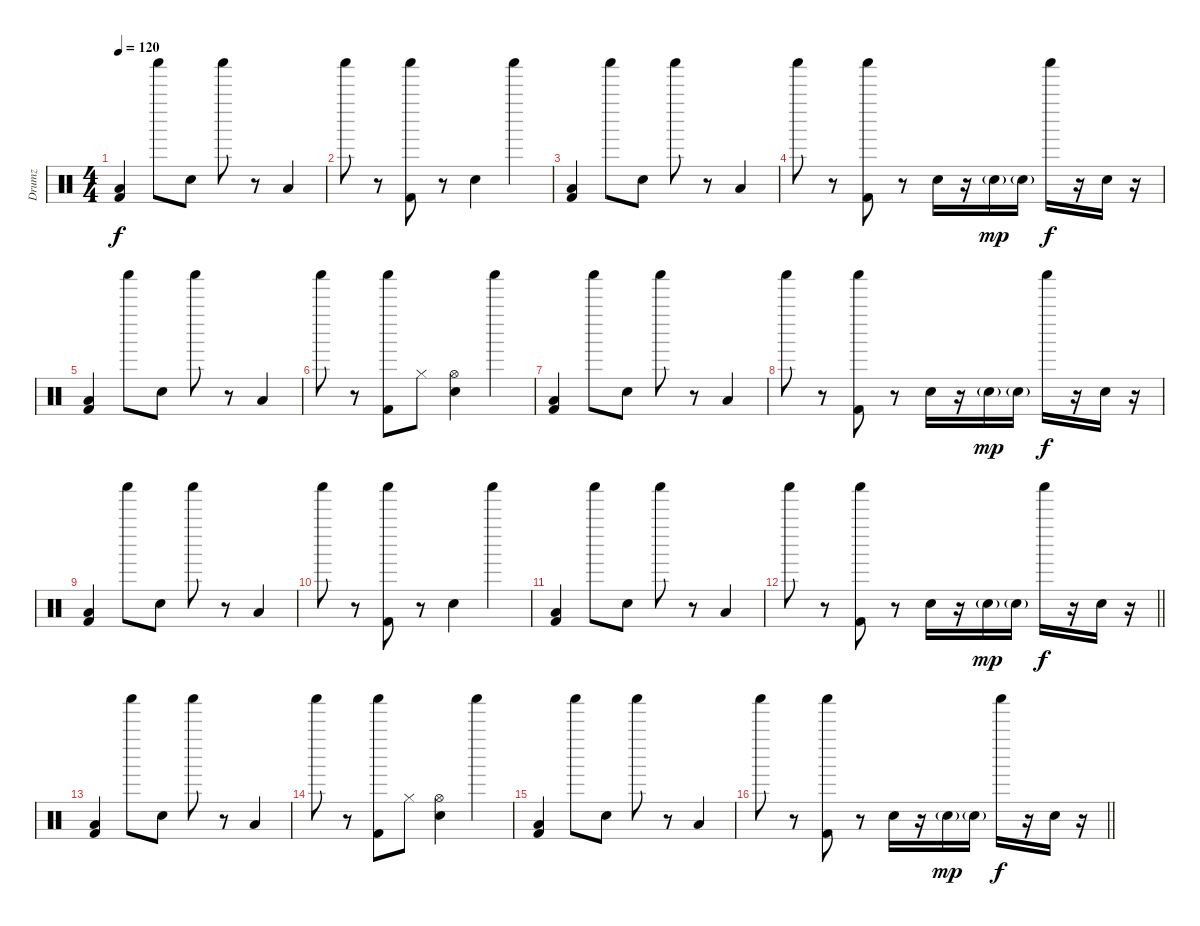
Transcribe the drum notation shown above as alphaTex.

\track ("Drumz" "Drumz") {instrument percussion}
\staff {score}
\articulation defaults
\ts (4 4)
\tempo 120
\clef neutral
\ks c
("Low Tom (hit)" "Kick (hit) 2").4{dy f} "Shaker (hit)".8 "Electric Snare (hit)".8 "Shaker (hit)".8 r.8 "Low Tom (hit)".4 |
"Shaker (hit)".8 r.8 ("Kick (hit) 2" "Shaker (hit)").8 r.8 "Electric Snare (hit)".4 "Shaker (hit)".4 |
("Low Tom (hit)" "Kick (hit) 2").4 "Shaker (hit)".8 "Electric Snare (hit)".8 "Shaker (hit)".8 r.8 "Low Tom (hit)".4 |
"Shaker (hit)".8 r.8 ("Kick (hit) 2" "Shaker (hit)").8 r.8 "Electric Snare (hit)".16 r.16 "Electric Snare (hit)"{g}.16{dy mp} "Electric Snare (hit)"{g}.16 "Shaker (hit)".16{dy f} r.16 "Electric Snare (hit)".16 r.16 |
("Low Tom (hit)" "Kick (hit) 2").4 "Shaker (hit)".8 "Electric Snare (hit)".8 "Shaker (hit)".8 r.8 "Low Tom (hit)".4 |
"Shaker (hit)".8 r.8 ("Kick (hit) 2" "Shaker (hit)").8 "Hi-Hat (closed)".8 ("Hi-Hat (open)" "Electric Snare (hit)").4 "Shaker (hit)".4 |
("Low Tom (hit)" "Kick (hit) 2").4 "Shaker (hit)".8 "Electric Snare (hit)".8 "Shaker (hit)".8 r.8 "Low Tom (hit)".4 |
"Shaker (hit)".8 r.8 ("Kick (hit) 2" "Shaker (hit)").8 r.8 "Electric Snare (hit)".16 r.16 "Electric Snare (hit)"{g}.16{dy mp} "Electric Snare (hit)"{g}.16 "Shaker (hit)".16{dy f} r.16 "Electric Snare (hit)".16 r.16 |
("Low Tom (hit)" "Kick (hit) 2").4 "Shaker (hit)".8 "Electric Snare (hit)".8 "Shaker (hit)".8 r.8 "Low Tom (hit)".4 |
"Shaker (hit)".8 r.8 ("Kick (hit) 2" "Shaker (hit)").8 r.8 "Electric Snare (hit)".4 "Shaker (hit)".4 |
("Low Tom (hit)" "Kick (hit) 2").4 "Shaker (hit)".8 "Electric Snare (hit)".8 "Shaker (hit)".8 r.8 "Low Tom (hit)".4 |
\barLineRight lightlight "Shaker (hit)".8
r.8 ("Kick (hit) 2" "Shaker (hit)").8 r.8 "Electric Snare (hit)".16 r.16 "Electric Snare (hit)"{g}.16{dy mp} "Electric Snare (hit)"{g}.16 "Shaker (hit)".16{dy f} r.16 "Electric Snare (hit)".16 r.16 |
("Low Tom (hit)" "Kick (hit) 2").4 "Shaker (hit)".8 "Electric Snare (hit)".8 "Shaker (hit)".8 r.8 "Low Tom (hit)".4 |
"Shaker (hit)".8 r.8 ("Kick (hit) 2" "Shaker (hit)").8 "Hi-Hat (closed)".8 ("Hi-Hat (open)" "Electric Snare (hit)").4 "Shaker (hit)".4 |
("Low Tom (hit)" "Kick (hit) 2").4 "Shaker (hit)".8 "Electric Snare (hit)".8 "Shaker (hit)".8 r.8 "Low Tom (hit)".4 |
\barLineRight lightlight "Shaker (hit)".8
r.8 ("Kick (hit) 2" "Shaker (hit)").8 r.8 "Electric Snare (hit)".16 r.16 "Electric Snare (hit)"{g}.16{dy mp} "Electric Snare (hit)"{g}.16 "Shaker (hit)".16{dy f} r.16 "Electric Snare (hit)".16 r.16
